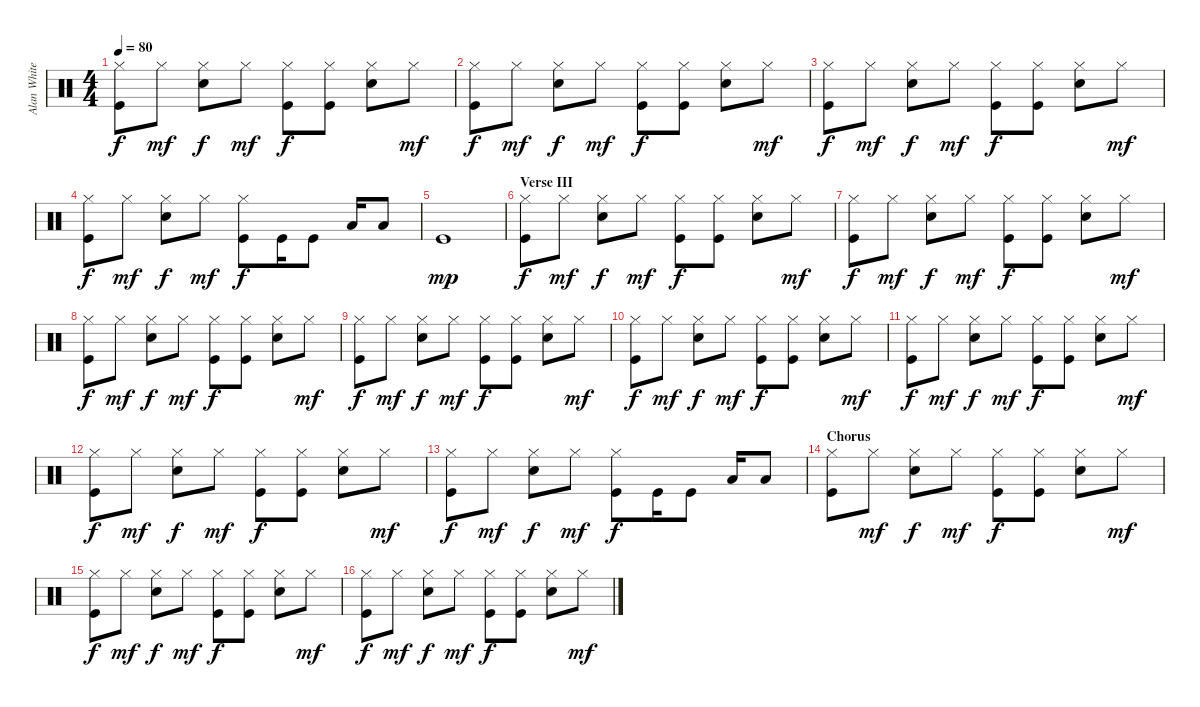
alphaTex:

\track ("Alan White" "Alan White") {instrument percussion}
\staff {score}
\articulation defaults
\ts (4 4)
\tempo 80
\clef neutral
\ks c
("Hi-Hat (closed)" "Kick (hit)").8{dy f} "Hi-Hat (closed)".8{dy mf} ("Hi-Hat (closed)" "Snare (hit) 2").8{dy f} "Hi-Hat (closed)".8{dy mf} ("Hi-Hat (closed)" "Kick (hit)").8{dy f} ("Hi-Hat (closed)" "Kick (hit)").8 ("Hi-Hat (closed)" "Snare (hit) 2").8 "Hi-Hat (closed)".8{dy mf} |
("Hi-Hat (closed)" "Kick (hit)").8{dy f} "Hi-Hat (closed)".8{dy mf} ("Hi-Hat (closed)" "Snare (hit) 2").8{dy f} "Hi-Hat (closed)".8{dy mf} ("Hi-Hat (closed)" "Kick (hit)").8{dy f} ("Hi-Hat (closed)" "Kick (hit)").8 ("Hi-Hat (closed)" "Snare (hit) 2").8 "Hi-Hat (closed)".8{dy mf} |
("Hi-Hat (closed)" "Kick (hit)").8{dy f} "Hi-Hat (closed)".8{dy mf} ("Hi-Hat (closed)" "Snare (hit) 2").8{dy f} "Hi-Hat (closed)".8{dy mf} ("Hi-Hat (closed)" "Kick (hit)").8{dy f} ("Hi-Hat (closed)" "Kick (hit)").8 ("Hi-Hat (closed)" "Snare (hit) 2").8 "Hi-Hat (closed)".8{dy mf} |
("Hi-Hat (closed)" "Kick (hit)").8{dy f} "Hi-Hat (closed)".8{dy mf} ("Hi-Hat (closed)" "Snare (hit) 2").8{dy f} "Hi-Hat (closed)".8{dy mf} ("Hi-Hat (closed)" "Kick (hit)").8{dy f} "Kick (hit)".16 "Kick (hit)".8 "Low Floor Tom (hit)".16 "Low Floor Tom (hit)".8 |
"Kick (hit)".1{dy mp} |
\section ("" "Verse III")
("Hi-Hat (closed)" "Kick (hit)").8{dy f} "Hi-Hat (closed)".8{dy mf} ("Hi-Hat (closed)" "Snare (hit) 2").8{dy f} "Hi-Hat (closed)".8{dy mf} ("Hi-Hat (closed)" "Kick (hit)").8{dy f} ("Hi-Hat (closed)" "Kick (hit)").8 ("Hi-Hat (closed)" "Snare (hit) 2").8 "Hi-Hat (closed)".8{dy mf} |
("Hi-Hat (closed)" "Kick (hit)").8{dy f} "Hi-Hat (closed)".8{dy mf} ("Hi-Hat (closed)" "Snare (hit) 2").8{dy f} "Hi-Hat (closed)".8{dy mf} ("Hi-Hat (closed)" "Kick (hit)").8{dy f} ("Hi-Hat (closed)" "Kick (hit)").8 ("Hi-Hat (closed)" "Snare (hit) 2").8 "Hi-Hat (closed)".8{dy mf} |
("Hi-Hat (closed)" "Kick (hit)").8{dy f} "Hi-Hat (closed)".8{dy mf} ("Hi-Hat (closed)" "Snare (hit) 2").8{dy f} "Hi-Hat (closed)".8{dy mf} ("Hi-Hat (closed)" "Kick (hit)").8{dy f} ("Hi-Hat (closed)" "Kick (hit)").8 ("Hi-Hat (closed)" "Snare (hit) 2").8 "Hi-Hat (closed)".8{dy mf} |
("Hi-Hat (closed)" "Kick (hit)").8{dy f} "Hi-Hat (closed)".8{dy mf} ("Hi-Hat (closed)" "Snare (hit) 2").8{dy f} "Hi-Hat (closed)".8{dy mf} ("Hi-Hat (closed)" "Kick (hit)").8{dy f} ("Hi-Hat (closed)" "Kick (hit)").8 ("Hi-Hat (closed)" "Snare (hit) 2").8 "Hi-Hat (closed)".8{dy mf} |
("Hi-Hat (closed)" "Kick (hit)").8{dy f} "Hi-Hat (closed)".8{dy mf} ("Hi-Hat (closed)" "Snare (hit) 2").8{dy f} "Hi-Hat (closed)".8{dy mf} ("Hi-Hat (closed)" "Kick (hit)").8{dy f} ("Hi-Hat (closed)" "Kick (hit)").8 ("Hi-Hat (closed)" "Snare (hit) 2").8 "Hi-Hat (closed)".8{dy mf} |
("Hi-Hat (closed)" "Kick (hit)").8{dy f} "Hi-Hat (closed)".8{dy mf} ("Hi-Hat (closed)" "Snare (hit) 2").8{dy f} "Hi-Hat (closed)".8{dy mf} ("Hi-Hat (closed)" "Kick (hit)").8{dy f} ("Hi-Hat (closed)" "Kick (hit)").8 ("Hi-Hat (closed)" "Snare (hit) 2").8 "Hi-Hat (closed)".8{dy mf} |
("Hi-Hat (closed)" "Kick (hit)").8{dy f} "Hi-Hat (closed)".8{dy mf} ("Hi-Hat (closed)" "Snare (hit) 2").8{dy f} "Hi-Hat (closed)".8{dy mf} ("Hi-Hat (closed)" "Kick (hit)").8{dy f} ("Hi-Hat (closed)" "Kick (hit)").8 ("Hi-Hat (closed)" "Snare (hit) 2").8 "Hi-Hat (closed)".8{dy mf} |
("Hi-Hat (closed)" "Kick (hit)").8{dy f} "Hi-Hat (closed)".8{dy mf} ("Hi-Hat (closed)" "Snare (hit) 2").8{dy f} "Hi-Hat (closed)".8{dy mf} ("Hi-Hat (closed)" "Kick (hit)").8{dy f} "Kick (hit)".16 "Kick (hit)".8 "Low Floor Tom (hit)".16 "Low Floor Tom (hit)".8 |
\section ("" "Chorus")
("Hi-Hat (closed)" "Kick (hit)").8 "Hi-Hat (closed)".8{dy mf} ("Hi-Hat (closed)" "Snare (hit) 2").8{dy f} "Hi-Hat (closed)".8{dy mf} ("Hi-Hat (closed)" "Kick (hit)").8{dy f} ("Hi-Hat (closed)" "Kick (hit)").8 ("Hi-Hat (closed)" "Snare (hit) 2").8 "Hi-Hat (closed)".8{dy mf} |
("Hi-Hat (closed)" "Kick (hit)").8{dy f} "Hi-Hat (closed)".8{dy mf} ("Hi-Hat (closed)" "Snare (hit) 2").8{dy f} "Hi-Hat (closed)".8{dy mf} ("Hi-Hat (closed)" "Kick (hit)").8{dy f} ("Hi-Hat (closed)" "Kick (hit)").8 ("Hi-Hat (closed)" "Snare (hit) 2").8 "Hi-Hat (closed)".8{dy mf} |
("Hi-Hat (closed)" "Kick (hit)").8{dy f} "Hi-Hat (closed)".8{dy mf} ("Hi-Hat (closed)" "Snare (hit) 2").8{dy f} "Hi-Hat (closed)".8{dy mf} ("Hi-Hat (closed)" "Kick (hit)").8{dy f} ("Hi-Hat (closed)" "Kick (hit)").8 ("Hi-Hat (closed)" "Snare (hit) 2").8 "Hi-Hat (closed)".8{dy mf}
